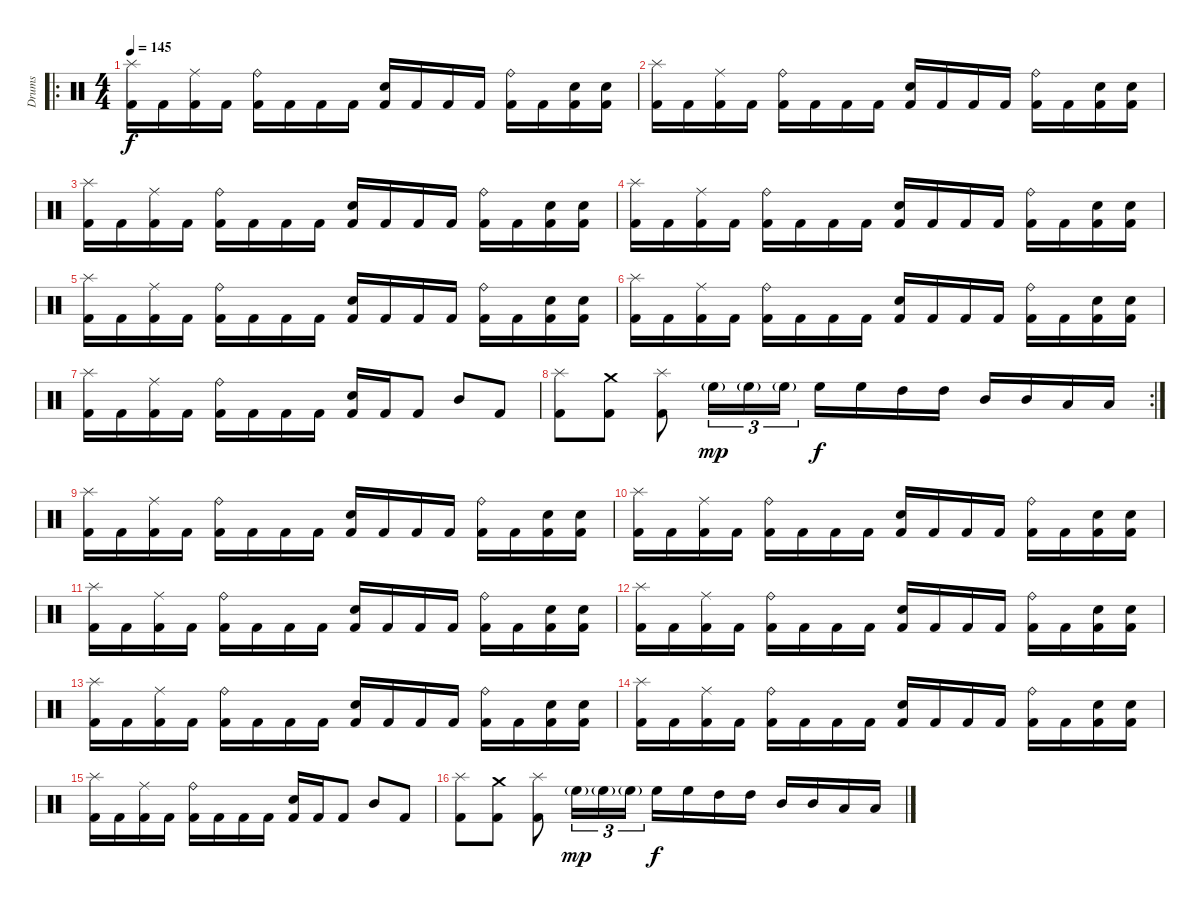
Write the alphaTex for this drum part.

\track ("Drums" "Drums") {instrument percussion}
\staff {score}
\articulation defaults
\ro
\ts (4 4)
\tempo 145
\clef neutral
\ks c
("Splash (hit)" "Kick (hit) 2").16{dy f} "Kick (hit) 2".16 ("Ride (middle)" "Kick (hit) 2").16 "Kick (hit) 2".16 ("Ride (bell)" "Kick (hit) 2").16 "Kick (hit) 2".16 "Kick (hit) 2".16 "Kick (hit) 2".16 ("Snare (hit) 2" "Kick (hit) 2").16 "Kick (hit) 2".16 "Kick (hit) 2".16 "Kick (hit) 2".16 ("Ride (bell)" "Kick (hit) 2").16 "Kick (hit) 2".16 ("Snare (hit) 2" "Kick (hit) 2").16 ("Snare (hit) 2" "Kick (hit) 2").16 |
("Splash (hit)" "Kick (hit) 2").16 "Kick (hit) 2".16 ("Ride (middle)" "Kick (hit) 2").16 "Kick (hit) 2".16 ("Ride (bell)" "Kick (hit) 2").16 "Kick (hit) 2".16 "Kick (hit) 2".16 "Kick (hit) 2".16 ("Snare (hit) 2" "Kick (hit) 2").16 "Kick (hit) 2".16 "Kick (hit) 2".16 "Kick (hit) 2".16 ("Ride (bell)" "Kick (hit) 2").16 "Kick (hit) 2".16 ("Snare (hit) 2" "Kick (hit) 2").16 ("Snare (hit) 2" "Kick (hit) 2").16 |
("Splash (hit)" "Kick (hit) 2").16 "Kick (hit) 2".16 ("Ride (middle)" "Kick (hit) 2").16 "Kick (hit) 2".16 ("Ride (bell)" "Kick (hit) 2").16 "Kick (hit) 2".16 "Kick (hit) 2".16 "Kick (hit) 2".16 ("Snare (hit) 2" "Kick (hit) 2").16 "Kick (hit) 2".16 "Kick (hit) 2".16 "Kick (hit) 2".16 ("Ride (bell)" "Kick (hit) 2").16 "Kick (hit) 2".16 ("Snare (hit) 2" "Kick (hit) 2").16 ("Snare (hit) 2" "Kick (hit) 2").16 |
("Splash (hit)" "Kick (hit) 2").16 "Kick (hit) 2".16 ("Ride (middle)" "Kick (hit) 2").16 "Kick (hit) 2".16 ("Ride (bell)" "Kick (hit) 2").16 "Kick (hit) 2".16 "Kick (hit) 2".16 "Kick (hit) 2".16 ("Snare (hit) 2" "Kick (hit) 2").16 "Kick (hit) 2".16 "Kick (hit) 2".16 "Kick (hit) 2".16 ("Ride (bell)" "Kick (hit) 2").16 "Kick (hit) 2".16 ("Snare (hit) 2" "Kick (hit) 2").16 ("Snare (hit) 2" "Kick (hit) 2").16 |
("Splash (hit)" "Kick (hit) 2").16 "Kick (hit) 2".16 ("Ride (middle)" "Kick (hit) 2").16 "Kick (hit) 2".16 ("Ride (bell)" "Kick (hit) 2").16 "Kick (hit) 2".16 "Kick (hit) 2".16 "Kick (hit) 2".16 ("Snare (hit) 2" "Kick (hit) 2").16 "Kick (hit) 2".16 "Kick (hit) 2".16 "Kick (hit) 2".16 ("Ride (bell)" "Kick (hit) 2").16 "Kick (hit) 2".16 ("Snare (hit) 2" "Kick (hit) 2").16 ("Snare (hit) 2" "Kick (hit) 2").16 |
("Splash (hit)" "Kick (hit) 2").16 "Kick (hit) 2".16 ("Ride (middle)" "Kick (hit) 2").16 "Kick (hit) 2".16 ("Ride (bell)" "Kick (hit) 2").16 "Kick (hit) 2".16 "Kick (hit) 2".16 "Kick (hit) 2".16 ("Snare (hit) 2" "Kick (hit) 2").16 "Kick (hit) 2".16 "Kick (hit) 2".16 "Kick (hit) 2".16 ("Ride (bell)" "Kick (hit) 2").16 "Kick (hit) 2".16 ("Snare (hit) 2" "Kick (hit) 2").16 ("Snare (hit) 2" "Kick (hit) 2").16 |
("Splash (hit)" "Kick (hit) 2").16 "Kick (hit) 2".16 ("Ride (middle)" "Kick (hit) 2").16 "Kick (hit) 2".16 ("Ride (bell)" "Kick (hit) 2").16 "Kick (hit) 2".16 "Kick (hit) 2".16 "Kick (hit) 2".16 ("Snare (hit) 2" "Kick (hit) 2").16 "Kick (hit) 2".16 "Kick (hit) 2".8 "Mid Tom (hit)".8 "Kick (hit) 2".8 |
\rc 2
("Splash (hit)" "Kick (hit) 2").8 ("Crash medium (hit)" "Kick (hit) 2").8 ("Splash (hit)" "Kick (hit) 2").8 "High Floor Tom (hit)"{g}.16{tu (3 2) dy mp} "High Floor Tom (hit)"{g}.16{tu (3 2)} "High Floor Tom (hit)"{g}.16{tu (3 2)} "High Floor Tom (hit)".16{dy f} "High Floor Tom (hit)".16 "High Tom (hit)".16 "High Tom (hit)".16 "Mid Tom (hit)".16 "Mid Tom (hit)".16 "Low Tom (hit)".16 "Low Tom (hit)".16 |
("Splash (hit)" "Kick (hit) 2").16 "Kick (hit) 2".16 ("Ride (middle)" "Kick (hit) 2").16 "Kick (hit) 2".16 ("Ride (bell)" "Kick (hit) 2").16 "Kick (hit) 2".16 "Kick (hit) 2".16 "Kick (hit) 2".16 ("Snare (hit) 2" "Kick (hit) 2").16 "Kick (hit) 2".16 "Kick (hit) 2".16 "Kick (hit) 2".16 ("Ride (bell)" "Kick (hit) 2").16 "Kick (hit) 2".16 ("Snare (hit) 2" "Kick (hit) 2").16 ("Snare (hit) 2" "Kick (hit) 2").16 |
("Splash (hit)" "Kick (hit) 2").16 "Kick (hit) 2".16 ("Ride (middle)" "Kick (hit) 2").16 "Kick (hit) 2".16 ("Ride (bell)" "Kick (hit) 2").16 "Kick (hit) 2".16 "Kick (hit) 2".16 "Kick (hit) 2".16 ("Snare (hit) 2" "Kick (hit) 2").16 "Kick (hit) 2".16 "Kick (hit) 2".16 "Kick (hit) 2".16 ("Ride (bell)" "Kick (hit) 2").16 "Kick (hit) 2".16 ("Snare (hit) 2" "Kick (hit) 2").16 ("Snare (hit) 2" "Kick (hit) 2").16 |
("Splash (hit)" "Kick (hit) 2").16 "Kick (hit) 2".16 ("Ride (middle)" "Kick (hit) 2").16 "Kick (hit) 2".16 ("Ride (bell)" "Kick (hit) 2").16 "Kick (hit) 2".16 "Kick (hit) 2".16 "Kick (hit) 2".16 ("Snare (hit) 2" "Kick (hit) 2").16 "Kick (hit) 2".16 "Kick (hit) 2".16 "Kick (hit) 2".16 ("Ride (bell)" "Kick (hit) 2").16 "Kick (hit) 2".16 ("Snare (hit) 2" "Kick (hit) 2").16 ("Snare (hit) 2" "Kick (hit) 2").16 |
("Splash (hit)" "Kick (hit) 2").16 "Kick (hit) 2".16 ("Ride (middle)" "Kick (hit) 2").16 "Kick (hit) 2".16 ("Ride (bell)" "Kick (hit) 2").16 "Kick (hit) 2".16 "Kick (hit) 2".16 "Kick (hit) 2".16 ("Snare (hit) 2" "Kick (hit) 2").16 "Kick (hit) 2".16 "Kick (hit) 2".16 "Kick (hit) 2".16 ("Ride (bell)" "Kick (hit) 2").16 "Kick (hit) 2".16 ("Snare (hit) 2" "Kick (hit) 2").16 ("Snare (hit) 2" "Kick (hit) 2").16 |
("Splash (hit)" "Kick (hit) 2").16 "Kick (hit) 2".16 ("Ride (middle)" "Kick (hit) 2").16 "Kick (hit) 2".16 ("Ride (bell)" "Kick (hit) 2").16 "Kick (hit) 2".16 "Kick (hit) 2".16 "Kick (hit) 2".16 ("Snare (hit) 2" "Kick (hit) 2").16 "Kick (hit) 2".16 "Kick (hit) 2".16 "Kick (hit) 2".16 ("Ride (bell)" "Kick (hit) 2").16 "Kick (hit) 2".16 ("Snare (hit) 2" "Kick (hit) 2").16 ("Snare (hit) 2" "Kick (hit) 2").16 |
("Splash (hit)" "Kick (hit) 2").16 "Kick (hit) 2".16 ("Ride (middle)" "Kick (hit) 2").16 "Kick (hit) 2".16 ("Ride (bell)" "Kick (hit) 2").16 "Kick (hit) 2".16 "Kick (hit) 2".16 "Kick (hit) 2".16 ("Snare (hit) 2" "Kick (hit) 2").16 "Kick (hit) 2".16 "Kick (hit) 2".16 "Kick (hit) 2".16 ("Ride (bell)" "Kick (hit) 2").16 "Kick (hit) 2".16 ("Snare (hit) 2" "Kick (hit) 2").16 ("Snare (hit) 2" "Kick (hit) 2").16 |
("Splash (hit)" "Kick (hit) 2").16 "Kick (hit) 2".16 ("Ride (middle)" "Kick (hit) 2").16 "Kick (hit) 2".16 ("Ride (bell)" "Kick (hit) 2").16 "Kick (hit) 2".16 "Kick (hit) 2".16 "Kick (hit) 2".16 ("Snare (hit) 2" "Kick (hit) 2").16 "Kick (hit) 2".16 "Kick (hit) 2".8 "Mid Tom (hit)".8 "Kick (hit) 2".8 |
("Splash (hit)" "Kick (hit) 2").8 ("Crash medium (hit)" "Kick (hit) 2").8 ("Splash (hit)" "Kick (hit) 2").8 "High Floor Tom (hit)"{g}.16{tu (3 2) dy mp} "High Floor Tom (hit)"{g}.16{tu (3 2)} "High Floor Tom (hit)"{g}.16{tu (3 2)} "High Floor Tom (hit)".16{dy f} "High Floor Tom (hit)".16 "High Tom (hit)".16 "High Tom (hit)".16 "Mid Tom (hit)".16 "Mid Tom (hit)".16 "Low Tom (hit)".16 "Low Tom (hit)".16
